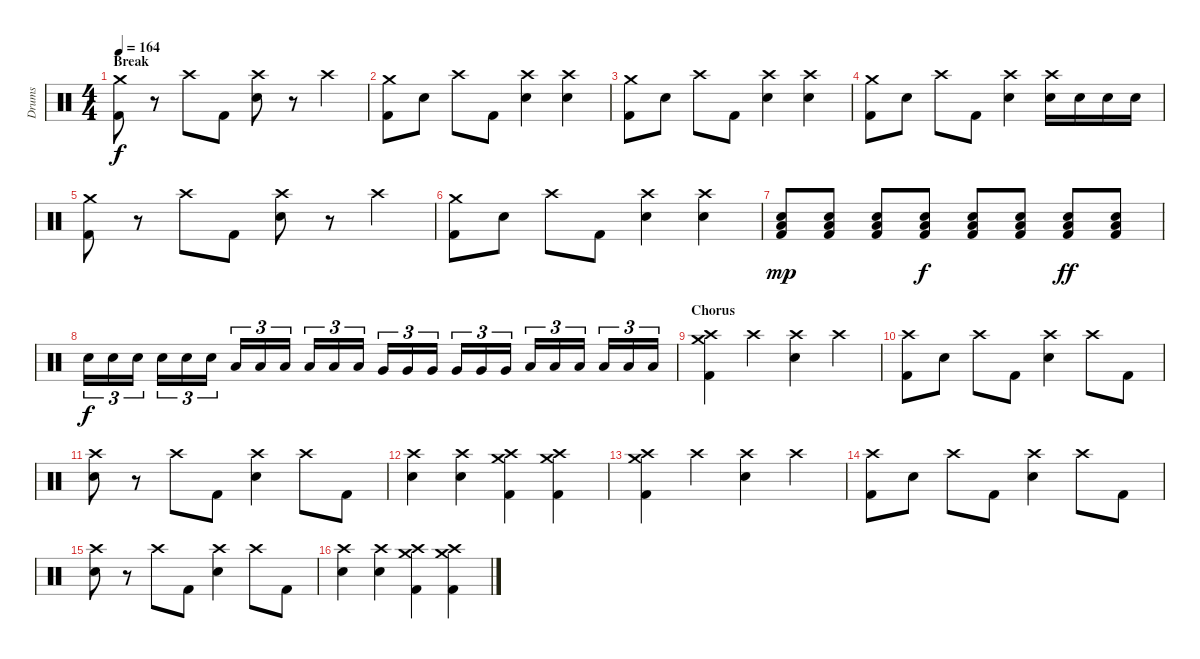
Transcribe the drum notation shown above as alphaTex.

\track ("Drums" "Drums") {instrument percussion}
\staff {score}
\articulation defaults
\ts (4 4)
\section ("" "Break")
\tempo 164
\clef neutral
\ks c
("Crash medium (hit)" "Kick (hit) 2").8{dy f} r.8 "Crash high (hit)".8 "Kick (hit) 2".8 ("Crash high (hit)" "Electric Snare (hit)").8 r.8 "Crash high (hit)".4 |
("Crash medium (hit)" "Kick (hit) 2").8 "Electric Snare (hit)".8 "Crash high (hit)".8 "Kick (hit) 2".8 ("Crash high (hit)" "Electric Snare (hit)").4 ("Crash high (hit)" "Electric Snare (hit)").4 |
("Crash medium (hit)" "Kick (hit) 2").8 "Electric Snare (hit)".8 "Crash high (hit)".8 "Kick (hit) 2".8 ("Crash high (hit)" "Electric Snare (hit)").4 ("Crash high (hit)" "Electric Snare (hit)").4 |
("Crash medium (hit)" "Kick (hit) 2").8 "Electric Snare (hit)".8 "Crash high (hit)".8 "Kick (hit) 2".8 ("Crash high (hit)" "Electric Snare (hit)").4 ("Crash high (hit)" "Electric Snare (hit)").16 "Electric Snare (hit)".16 "Electric Snare (hit)".16 "Electric Snare (hit)".16 |
("Crash medium (hit)" "Kick (hit) 2").8 r.8 "Crash high (hit)".8 "Kick (hit) 2".8 ("Crash high (hit)" "Electric Snare (hit)").8 r.8 "Crash high (hit)".4 |
("Crash medium (hit)" "Kick (hit) 2").8 "Electric Snare (hit)".8 "Crash high (hit)".8 "Kick (hit) 2".8 ("Crash high (hit)" "Electric Snare (hit)").4 ("Crash high (hit)" "Electric Snare (hit)").4 |
("Low Floor Tom (hit)" "Electric Snare (hit)" "Kick (hit) 2").8{dy mp} ("Low Floor Tom (hit)" "Electric Snare (hit)" "Kick (hit) 2").8 ("Low Floor Tom (hit)" "Electric Snare (hit)" "Kick (hit) 2").8 ("Low Floor Tom (hit)" "Electric Snare (hit)" "Kick (hit) 2").8{dy f} ("Low Floor Tom (hit)" "Electric Snare (hit)" "Kick (hit) 2").8 ("Low Floor Tom (hit)" "Electric Snare (hit)" "Kick (hit) 2").8 ("Low Floor Tom (hit)" "Electric Snare (hit)" "Kick (hit) 2").8{dy ff} ("Low Floor Tom (hit)" "Electric Snare (hit)" "Kick (hit) 2").8 |
"Electric Snare (hit)".16{tu (3 2) dy f} "Electric Snare (hit)".16{tu (3 2)} "Electric Snare (hit)".16{tu (3 2)} "Electric Snare (hit)".16{tu (3 2)} "Electric Snare (hit)".16{tu (3 2)} "Electric Snare (hit)".16{tu (3 2)} "Low Tom (hit)".16{tu (3 2)} "Low Tom (hit)".16{tu (3 2)} "Low Tom (hit)".16{tu (3 2)} "Low Tom (hit)".16{tu (3 2)} "Low Tom (hit)".16{tu (3 2)} "Low Tom (hit)".16{tu (3 2)} "Very Low Tom (hit)".16{tu (3 2)} "Very Low Tom (hit)".16{tu (3 2)} "Very Low Tom (hit)".16{tu (3 2)} "Very Low Tom (hit)".16{tu (3 2)} "Very Low Tom (hit)".16{tu (3 2)} "Very Low Tom (hit)".16{tu (3 2)} "Low Floor Tom (hit)".16{tu (3 2)} "Low Floor Tom (hit)".16{tu (3 2)} "Low Floor Tom (hit)".16{tu (3 2)} "Low Floor Tom (hit)".16{tu (3 2)} "Low Floor Tom (hit)".16{tu (3 2)} "Low Floor Tom (hit)".16{tu (3 2)} |
\section ("" "Chorus")
("Crash medium (hit)" "Crash high (hit)" "Kick (hit) 2").4 "Crash high (hit)".4 ("Crash high (hit)" "Electric Snare (hit)").4 "Crash high (hit)".4 |
("Crash high (hit)" "Kick (hit) 2").8 "Electric Snare (hit)".8 "Crash high (hit)".8 "Kick (hit) 2".8 ("Crash high (hit)" "Electric Snare (hit)").4 "Crash high (hit)".8 "Kick (hit) 2".8 |
("Crash high (hit)" "Electric Snare (hit)").8 r.8 "Crash high (hit)".8 "Kick (hit) 2".8 ("Crash high (hit)" "Electric Snare (hit)").4 "Crash high (hit)".8 "Kick (hit) 2".8 |
("Crash high (hit)" "Electric Snare (hit)").4 ("Crash high (hit)" "Electric Snare (hit)").4 ("Crash medium (hit)" "Crash high (hit)" "Kick (hit) 2").4 ("Crash medium (hit)" "Crash high (hit)" "Kick (hit) 2").4 |
("Crash medium (hit)" "Crash high (hit)" "Kick (hit) 2").4 "Crash high (hit)".4 ("Crash high (hit)" "Electric Snare (hit)").4 "Crash high (hit)".4 |
("Crash high (hit)" "Kick (hit) 2").8 "Electric Snare (hit)".8 "Crash high (hit)".8 "Kick (hit) 2".8 ("Crash high (hit)" "Electric Snare (hit)").4 "Crash high (hit)".8 "Kick (hit) 2".8 |
("Crash high (hit)" "Electric Snare (hit)").8 r.8 "Crash high (hit)".8 "Kick (hit) 2".8 ("Crash high (hit)" "Electric Snare (hit)").4 "Crash high (hit)".8 "Kick (hit) 2".8 |
("Crash high (hit)" "Electric Snare (hit)").4 ("Crash high (hit)" "Electric Snare (hit)").4 ("Crash medium (hit)" "Crash high (hit)" "Kick (hit) 2").4 ("Crash medium (hit)" "Crash high (hit)" "Kick (hit) 2").4
